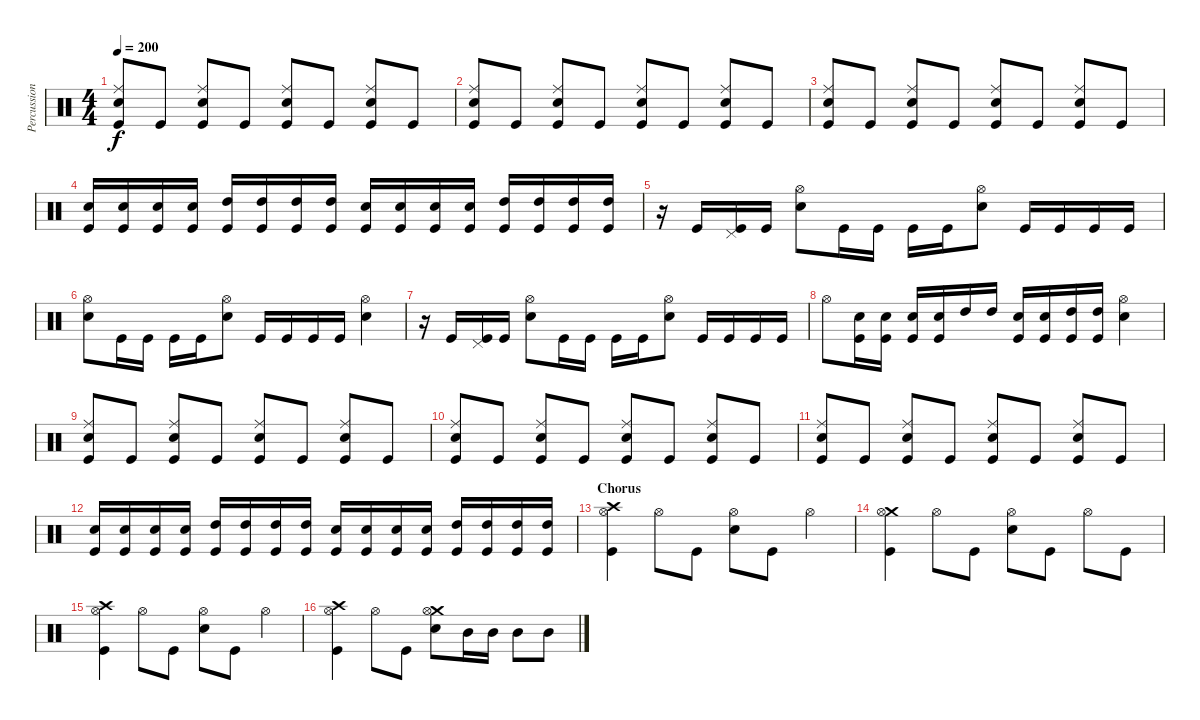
\track ("Percussion" "Percussion") {instrument percussion}
\staff {score}
\articulation defaults
\ts (4 4)
\tempo 200
\clef neutral
\ks c
("Snare (hit) 2" "Ride (middle)" "Kick (hit)").8{dy f} "Kick (hit)".8 ("Snare (hit) 2" "Ride (middle)" "Kick (hit)").8 "Kick (hit)".8 ("Snare (hit) 2" "Ride (middle)" "Kick (hit)").8 "Kick (hit)".8 ("Snare (hit) 2" "Ride (middle)" "Kick (hit)").8 "Kick (hit)".8 |
("Snare (hit) 2" "Ride (middle)" "Kick (hit)").8 "Kick (hit)".8 ("Snare (hit) 2" "Ride (middle)" "Kick (hit)").8 "Kick (hit)".8 ("Snare (hit) 2" "Ride (middle)" "Kick (hit)").8 "Kick (hit)".8 ("Snare (hit) 2" "Ride (middle)" "Kick (hit)").8 "Kick (hit)".8 |
("Snare (hit) 2" "Ride (middle)" "Kick (hit)").8 "Kick (hit)".8 ("Snare (hit) 2" "Ride (middle)" "Kick (hit)").8 "Kick (hit)".8 ("Snare (hit) 2" "Ride (middle)" "Kick (hit)").8 "Kick (hit)".8 ("Snare (hit) 2" "Ride (middle)" "Kick (hit)").8 "Kick (hit)".8 |
("Snare (hit) 2" "Kick (hit)").16 ("Snare (hit) 2" "Kick (hit)").16 ("Snare (hit) 2" "Kick (hit)").16 ("Snare (hit) 2" "Kick (hit)").16 ("High Tom (hit)" "Kick (hit)").16 ("High Tom (hit)" "Kick (hit)").16 ("High Tom (hit)" "Kick (hit)").16 ("High Tom (hit)" "Kick (hit)").16 ("Snare (hit) 2" "Kick (hit)").16 ("Snare (hit) 2" "Kick (hit)").16 ("Snare (hit) 2" "Kick (hit)").16 ("Snare (hit) 2" "Kick (hit)").16 ("High Tom (hit)" "Kick (hit)").16 ("High Tom (hit)" "Kick (hit)").16 ("High Tom (hit)" "Kick (hit)").16 ("High Tom (hit)" "Kick (hit)").16 |
r.16 "Kick (hit)".16 ("Pedal Hi-Hat (hit)" "Kick (hit)").16 "Kick (hit)".16 ("Snare (hit) 2" "Hi-Hat (open)").8 "Kick (hit)".16 "Kick (hit)".16 "Kick (hit)".16 "Kick (hit)".16 ("Snare (hit) 2" "Hi-Hat (open)").8 "Kick (hit)".16 "Kick (hit)".16 "Kick (hit)".16 "Kick (hit)".16 |
("Snare (hit) 2" "Hi-Hat (open)").8 "Kick (hit)".16 "Kick (hit)".16 "Kick (hit)".16 "Kick (hit)".16 ("Snare (hit) 2" "Hi-Hat (open)").8 "Kick (hit)".16 "Kick (hit)".16 "Kick (hit)".16 "Kick (hit)".16 ("Snare (hit) 2" "Hi-Hat (open)").4 |
r.16 "Kick (hit)".16 ("Pedal Hi-Hat (hit)" "Kick (hit)").16 "Kick (hit)".16 ("Snare (hit) 2" "Hi-Hat (open)").8 "Kick (hit)".16 "Kick (hit)".16 "Kick (hit)".16 "Kick (hit)".16 ("Snare (hit) 2" "Hi-Hat (open)").8 "Kick (hit)".16 "Kick (hit)".16 "Kick (hit)".16 "Kick (hit)".16 |
"Hi-Hat (open)".8 ("Snare (hit) 2" "Kick (hit)").16 ("Snare (hit) 2" "Kick (hit)").16 ("Snare (hit) 2" "Kick (hit)").16 ("Snare (hit) 2" "Kick (hit)").16 "High Tom (hit)".16 "High Tom (hit)".16 ("Snare (hit) 2" "Kick (hit)").16 ("Snare (hit) 2" "Kick (hit)").16 ("High Tom (hit)" "Kick (hit)").16 ("High Tom (hit)" "Kick (hit)").16 ("Snare (hit) 2" "Hi-Hat (open)").4 |
("Snare (hit) 2" "Ride (middle)" "Kick (hit)").8 "Kick (hit)".8 ("Snare (hit) 2" "Ride (middle)" "Kick (hit)").8 "Kick (hit)".8 ("Snare (hit) 2" "Ride (middle)" "Kick (hit)").8 "Kick (hit)".8 ("Snare (hit) 2" "Ride (middle)" "Kick (hit)").8 "Kick (hit)".8 |
("Snare (hit) 2" "Ride (middle)" "Kick (hit)").8 "Kick (hit)".8 ("Snare (hit) 2" "Ride (middle)" "Kick (hit)").8 "Kick (hit)".8 ("Snare (hit) 2" "Ride (middle)" "Kick (hit)").8 "Kick (hit)".8 ("Snare (hit) 2" "Ride (middle)" "Kick (hit)").8 "Kick (hit)".8 |
("Snare (hit) 2" "Ride (middle)" "Kick (hit)").8 "Kick (hit)".8 ("Snare (hit) 2" "Ride (middle)" "Kick (hit)").8 "Kick (hit)".8 ("Snare (hit) 2" "Ride (middle)" "Kick (hit)").8 "Kick (hit)".8 ("Snare (hit) 2" "Ride (middle)" "Kick (hit)").8 "Kick (hit)".8 |
("Snare (hit) 2" "Kick (hit)").16 ("Snare (hit) 2" "Kick (hit)").16 ("Snare (hit) 2" "Kick (hit)").16 ("Snare (hit) 2" "Kick (hit)").16 ("High Tom (hit)" "Kick (hit)").16 ("High Tom (hit)" "Kick (hit)").16 ("High Tom (hit)" "Kick (hit)").16 ("High Tom (hit)" "Kick (hit)").16 ("Snare (hit) 2" "Kick (hit)").16 ("Snare (hit) 2" "Kick (hit)").16 ("Snare (hit) 2" "Kick (hit)").16 ("Snare (hit) 2" "Kick (hit)").16 ("High Tom (hit)" "Kick (hit)").16 ("High Tom (hit)" "Kick (hit)").16 ("High Tom (hit)" "Kick (hit)").16 ("High Tom (hit)" "Kick (hit)").16 |
\section ("" "Chorus")
("Crash high (hit)" "Hi-Hat (open)" "Kick (hit)").4 "Hi-Hat (open)".8 "Kick (hit)".8 ("Snare (hit) 2" "Hi-Hat (open)").8 "Kick (hit)".8 "Hi-Hat (open)".4 |
("Crash medium (hit)" "Hi-Hat (open)" "Kick (hit)").4 "Hi-Hat (open)".8 "Kick (hit)".8 ("Snare (hit) 2" "Hi-Hat (open)").8 "Kick (hit)".8 "Hi-Hat (open)".8 "Kick (hit)".8 |
("Crash high (hit)" "Hi-Hat (open)" "Kick (hit)").4 "Hi-Hat (open)".8 "Kick (hit)".8 ("Snare (hit) 2" "Hi-Hat (open)").8 "Kick (hit)".8 "Hi-Hat (open)".4 |
("Crash high (hit)" "Hi-Hat (open)" "Kick (hit)").4 "Hi-Hat (open)".8 "Kick (hit)".8 ("Crash medium (hit)" "Snare (hit) 2" "Hi-Hat (open)").8 "Mid Tom (hit)".16 "Mid Tom (hit)".16 "Mid Tom (hit)".8 "Mid Tom (hit)".8
